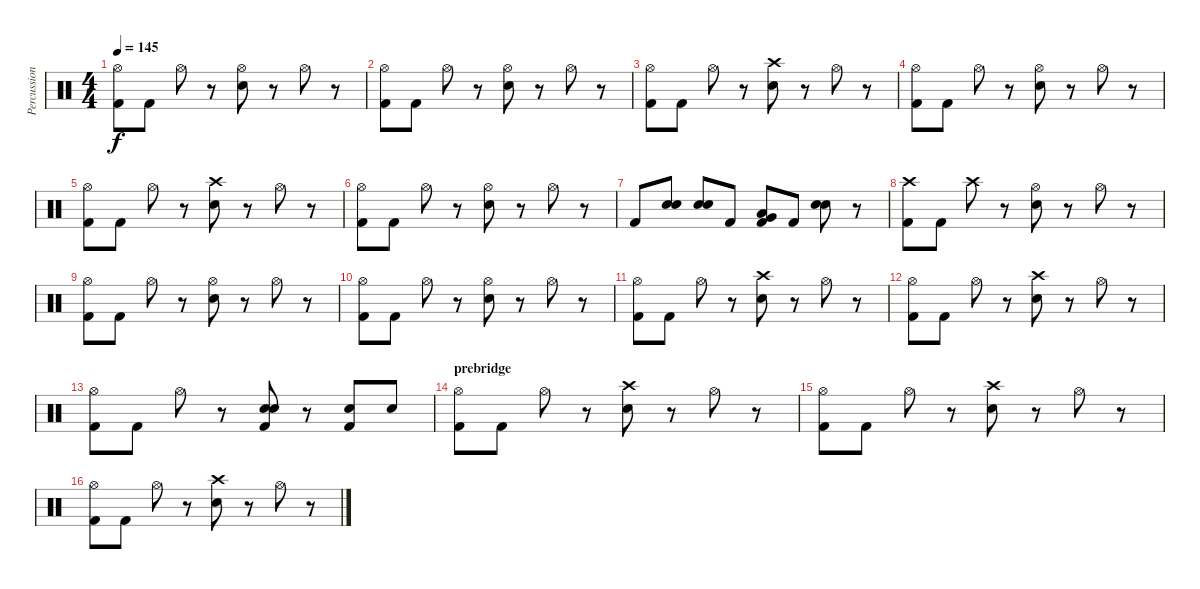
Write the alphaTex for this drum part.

\track ("Percussion" "Percussion") {instrument percussion}
\staff {score}
\articulation defaults
\ts (4 4)
\tempo 145
\clef neutral
\ks c
("Hi-Hat (open)" "Kick (hit) 2").8{dy f} "Kick (hit) 2".8 "Hi-Hat (open)".8 r.8 ("Hi-Hat (open)" "Electric Snare (hit)").8 r.8 "Hi-Hat (open)".8 r.8 |
("Hi-Hat (open)" "Kick (hit) 2").8 "Kick (hit) 2".8 "Hi-Hat (open)".8 r.8 ("Hi-Hat (open)" "Electric Snare (hit)").8 r.8 "Hi-Hat (open)".8 r.8 |
("Hi-Hat (open)" "Kick (hit) 2").8 "Kick (hit) 2".8 "Hi-Hat (open)".8 r.8 ("Crash high (hit)" "Electric Snare (hit)").8 r.8 "Hi-Hat (open)".8 r.8 |
("Hi-Hat (open)" "Kick (hit) 2").8 "Kick (hit) 2".8 "Hi-Hat (open)".8 r.8 ("Hi-Hat (open)" "Electric Snare (hit)").8 r.8 "Hi-Hat (open)".8 r.8 |
("Hi-Hat (open)" "Kick (hit) 2").8 "Kick (hit) 2".8 "Hi-Hat (open)".8 r.8 ("Crash high (hit)" "Electric Snare (hit)").8 r.8 "Hi-Hat (open)".8 r.8 |
("Hi-Hat (open)" "Kick (hit) 2").8 "Kick (hit) 2".8 "Hi-Hat (open)".8 r.8 ("Hi-Hat (open)" "Electric Snare (hit)").8 r.8 "Hi-Hat (open)".8 r.8 |
"Kick (hit) 2".8 ("Electric Snare (hit)" "Electric Snare (hit)").8 ("Electric Snare (hit)" "Electric Snare (hit)").8 "Kick (hit) 2".8 ("Low Tom (hit)" "Very Low Tom (hit)" "Kick (hit) 2").8 "Kick (hit) 2".8 ("Electric Snare (hit)" "Electric Snare (hit)").8 r.8 |
("Crash high (hit)" "Kick (hit) 2").8 "Kick (hit) 2".8 "Crash high (hit)".8 r.8 ("Hi-Hat (open)" "Electric Snare (hit)").8 r.8 "Hi-Hat (open)".8 r.8 |
("Hi-Hat (open)" "Kick (hit) 2").8 "Kick (hit) 2".8 "Hi-Hat (open)".8 r.8 ("Hi-Hat (open)" "Electric Snare (hit)").8 r.8 "Hi-Hat (open)".8 r.8 |
("Hi-Hat (open)" "Kick (hit) 2").8 "Kick (hit) 2".8 "Hi-Hat (open)".8 r.8 ("Hi-Hat (open)" "Electric Snare (hit)").8 r.8 "Hi-Hat (open)".8 r.8 |
("Hi-Hat (open)" "Kick (hit) 2").8 "Kick (hit) 2".8 "Hi-Hat (open)".8 r.8 ("Crash high (hit)" "Electric Snare (hit)").8 r.8 "Hi-Hat (open)".8 r.8 |
("Hi-Hat (open)" "Kick (hit) 2").8 "Kick (hit) 2".8 "Hi-Hat (open)".8 r.8 ("Crash high (hit)" "Electric Snare (hit)").8 r.8 "Hi-Hat (open)".8 r.8 |
("Hi-Hat (open)" "Kick (hit) 2").8 "Kick (hit) 2".8 "Hi-Hat (open)".8 r.8 ("Electric Snare (hit)" "Electric Snare (hit)" "Kick (hit) 2").8 r.8 ("Electric Snare (hit)" "Kick (hit) 2").8 "Electric Snare (hit)".8 |
\section ("" "prebridge")
("Hi-Hat (open)" "Kick (hit) 2").8 "Kick (hit) 2".8 "Hi-Hat (open)".8 r.8 ("Crash high (hit)" "Electric Snare (hit)").8 r.8 "Hi-Hat (open)".8 r.8 |
("Hi-Hat (open)" "Kick (hit) 2").8 "Kick (hit) 2".8 "Hi-Hat (open)".8 r.8 ("Crash high (hit)" "Electric Snare (hit)").8 r.8 "Hi-Hat (open)".8 r.8 |
("Hi-Hat (open)" "Kick (hit) 2").8 "Kick (hit) 2".8 "Hi-Hat (open)".8 r.8 ("Crash high (hit)" "Electric Snare (hit)").8 r.8 "Hi-Hat (open)".8 r.8
